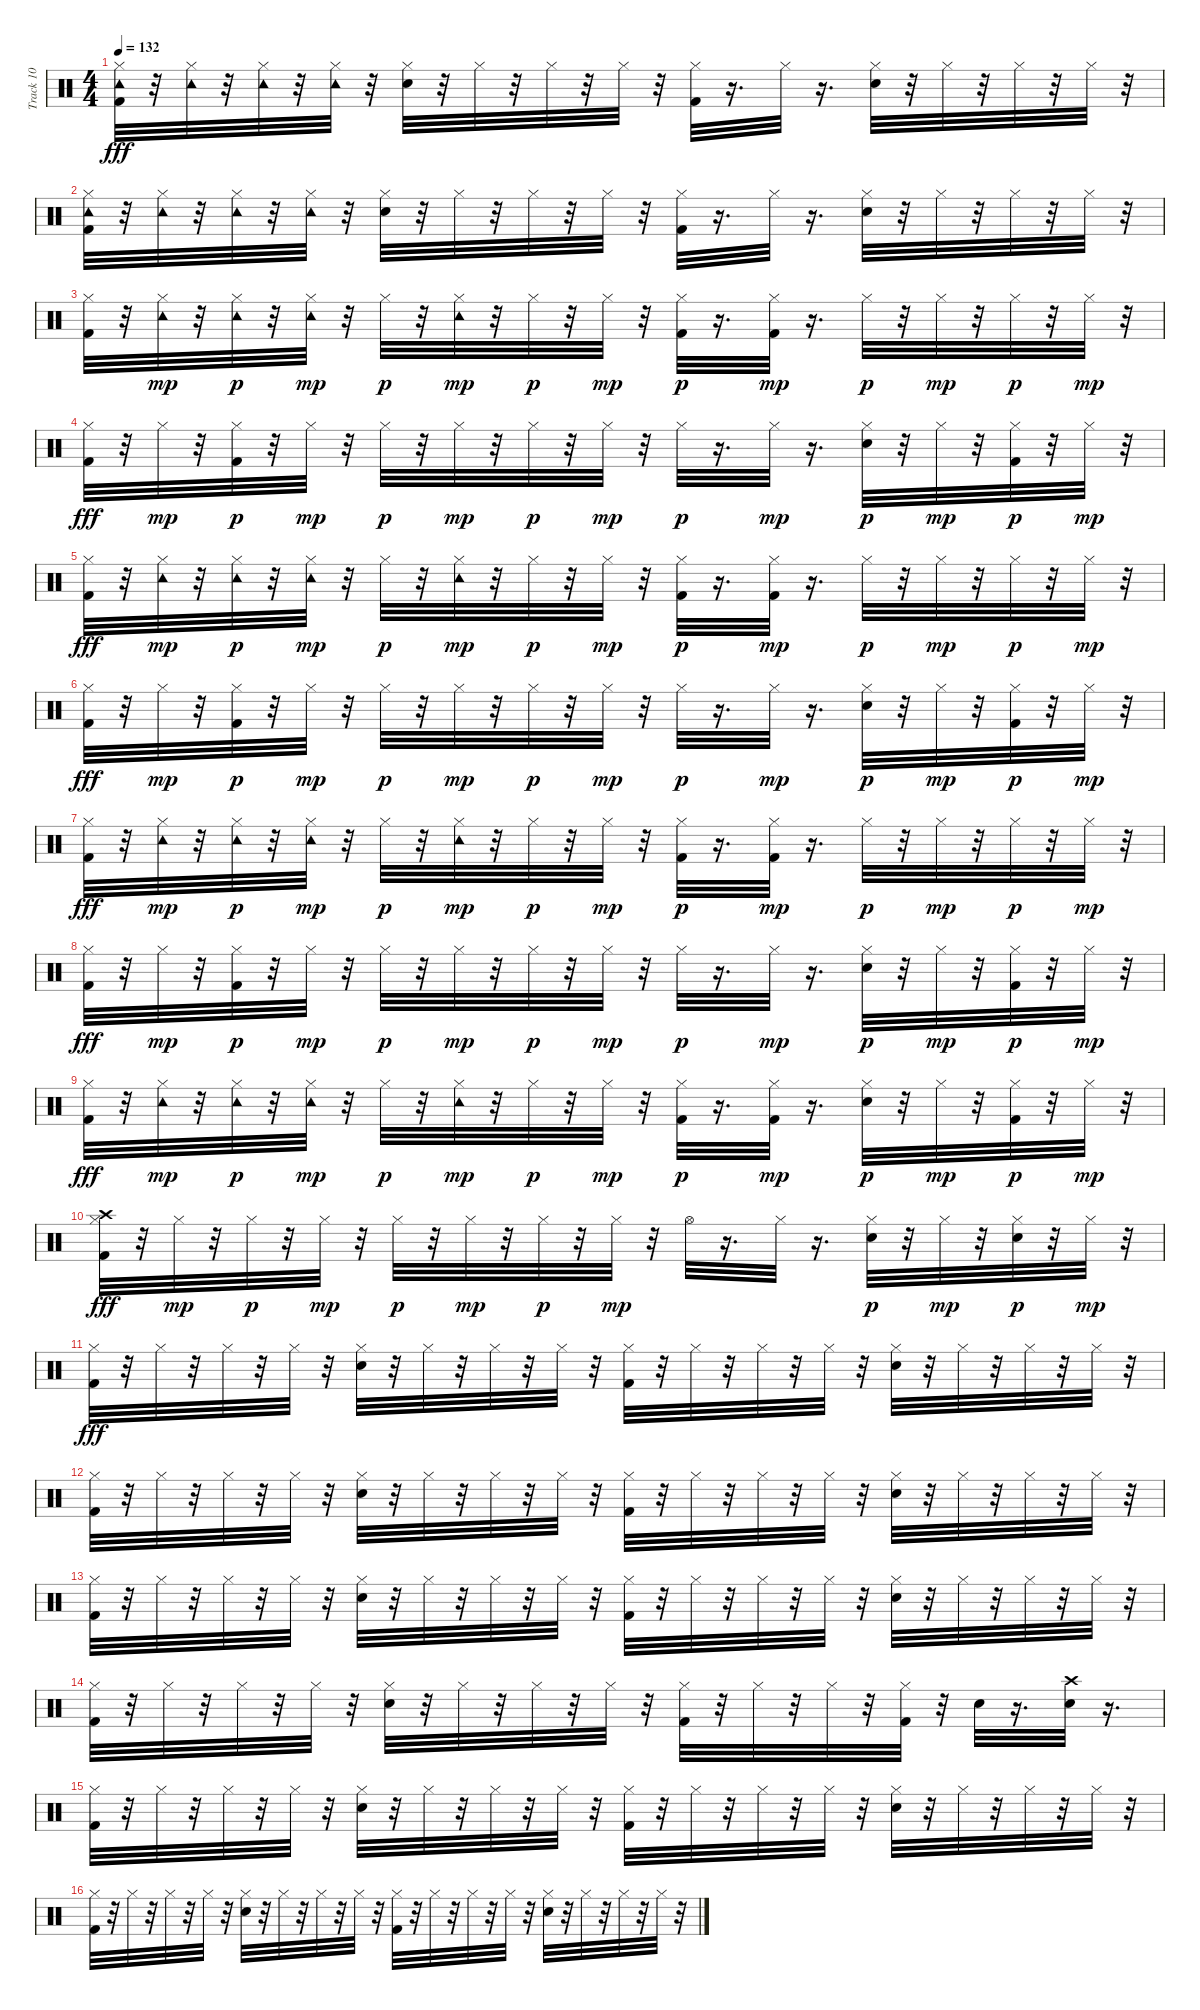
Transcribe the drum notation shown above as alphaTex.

\track ("Track 10" "Track 10") {instrument percussion}
\staff {score}
\articulation defaults
\ts (4 4)
\tempo 132
\clef neutral
\ks c
("Tambourine (hit)" "Kick (hit) 2" "Hi-Hat (closed)").32{dy fff} r.32 ("Tambourine (hit)" "Hi-Hat (closed)").32 r.32 ("Tambourine (hit)" "Hi-Hat (closed)").32 r.32 ("Tambourine (hit)" "Hi-Hat (closed)").32 r.32 ("Snare (hit) 2" "Hi-Hat (closed)").32 r.32 "Hi-Hat (closed)".32 r.32 "Hi-Hat (closed)".32 r.32 "Hi-Hat (closed)".32 r.32 ("Kick (hit) 2" "Hi-Hat (closed)").32 r.16{d} "Hi-Hat (closed)".32 r.16{d} ("Snare (hit) 2" "Hi-Hat (closed)").32 r.32 "Hi-Hat (closed)".32 r.32 "Hi-Hat (closed)".32 r.32 "Hi-Hat (closed)".32 r.32 |
("Tambourine (hit)" "Kick (hit) 2" "Hi-Hat (closed)").32 r.32 ("Tambourine (hit)" "Hi-Hat (closed)").32 r.32 ("Tambourine (hit)" "Hi-Hat (closed)").32 r.32 ("Tambourine (hit)" "Hi-Hat (closed)").32 r.32 ("Snare (hit) 2" "Hi-Hat (closed)").32 r.32 "Hi-Hat (closed)".32 r.32 "Hi-Hat (closed)".32 r.32 "Hi-Hat (closed)".32 r.32 ("Kick (hit) 2" "Hi-Hat (closed)").32 r.16{d} "Hi-Hat (closed)".32 r.16{d} ("Snare (hit) 2" "Hi-Hat (closed)").32 r.32 "Hi-Hat (closed)".32 r.32 "Hi-Hat (closed)".32 r.32 "Hi-Hat (closed)".32 r.32 |
("Hi-Hat (closed)" "Kick (hit) 2").32 r.32 ("Tambourine (hit)" "Hi-Hat (closed)").32{dy mp} r.32 ("Tambourine (hit)" "Hi-Hat (closed)").32{dy p} r.32 ("Tambourine (hit)" "Hi-Hat (closed)").32{dy mp} r.32 "Hi-Hat (closed)".32{dy p} r.32 ("Tambourine (hit)" "Hi-Hat (closed)").32{dy mp} r.32 "Hi-Hat (closed)".32{dy p} r.32 "Hi-Hat (closed)".32{dy mp} r.32 ("Kick (hit) 2" "Hi-Hat (closed)").32{dy p} r.16{d} ("Kick (hit) 2" "Hi-Hat (closed)").32{dy mp} r.16{d} "Hi-Hat (closed)".32{dy p} r.32 "Hi-Hat (closed)".32{dy mp} r.32 "Hi-Hat (closed)".32{dy p} r.32 "Hi-Hat (closed)".32{dy mp} r.32 |
("Hi-Hat (closed)" "Kick (hit) 2").32{dy fff} r.32 "Hi-Hat (closed)".32{dy mp} r.32 ("Kick (hit) 2" "Hi-Hat (closed)").32{dy p} r.32 "Hi-Hat (closed)".32{dy mp} r.32 "Hi-Hat (closed)".32{dy p} r.32 "Hi-Hat (closed)".32{dy mp} r.32 "Hi-Hat (closed)".32{dy p} r.32 "Hi-Hat (closed)".32{dy mp} r.32 "Hi-Hat (closed)".32{dy p} r.16{d} "Hi-Hat (closed)".32{dy mp} r.16{d} ("Snare (hit) 2" "Hi-Hat (closed)").32{dy p} r.32 "Hi-Hat (closed)".32{dy mp} r.32 ("Kick (hit) 2" "Hi-Hat (closed)").32{dy p} r.32 "Hi-Hat (closed)".32{dy mp} r.32 |
("Hi-Hat (closed)" "Kick (hit) 2").32{dy fff} r.32 ("Tambourine (hit)" "Hi-Hat (closed)").32{dy mp} r.32 ("Tambourine (hit)" "Hi-Hat (closed)").32{dy p} r.32 ("Tambourine (hit)" "Hi-Hat (closed)").32{dy mp} r.32 "Hi-Hat (closed)".32{dy p} r.32 ("Tambourine (hit)" "Hi-Hat (closed)").32{dy mp} r.32 "Hi-Hat (closed)".32{dy p} r.32 "Hi-Hat (closed)".32{dy mp} r.32 ("Kick (hit) 2" "Hi-Hat (closed)").32{dy p} r.16{d} ("Kick (hit) 2" "Hi-Hat (closed)").32{dy mp} r.16{d} "Hi-Hat (closed)".32{dy p} r.32 "Hi-Hat (closed)".32{dy mp} r.32 "Hi-Hat (closed)".32{dy p} r.32 "Hi-Hat (closed)".32{dy mp} r.32 |
("Hi-Hat (closed)" "Kick (hit) 2").32{dy fff} r.32 "Hi-Hat (closed)".32{dy mp} r.32 ("Kick (hit) 2" "Hi-Hat (closed)").32{dy p} r.32 "Hi-Hat (closed)".32{dy mp} r.32 "Hi-Hat (closed)".32{dy p} r.32 "Hi-Hat (closed)".32{dy mp} r.32 "Hi-Hat (closed)".32{dy p} r.32 "Hi-Hat (closed)".32{dy mp} r.32 "Hi-Hat (closed)".32{dy p} r.16{d} "Hi-Hat (closed)".32{dy mp} r.16{d} ("Snare (hit) 2" "Hi-Hat (closed)").32{dy p} r.32 "Hi-Hat (closed)".32{dy mp} r.32 ("Kick (hit) 2" "Hi-Hat (closed)").32{dy p} r.32 "Hi-Hat (closed)".32{dy mp} r.32 |
("Hi-Hat (closed)" "Kick (hit) 2").32{dy fff} r.32 ("Tambourine (hit)" "Hi-Hat (closed)").32{dy mp} r.32 ("Tambourine (hit)" "Hi-Hat (closed)").32{dy p} r.32 ("Tambourine (hit)" "Hi-Hat (closed)").32{dy mp} r.32 "Hi-Hat (closed)".32{dy p} r.32 ("Tambourine (hit)" "Hi-Hat (closed)").32{dy mp} r.32 "Hi-Hat (closed)".32{dy p} r.32 "Hi-Hat (closed)".32{dy mp} r.32 ("Kick (hit) 2" "Hi-Hat (closed)").32{dy p} r.16{d} ("Kick (hit) 2" "Hi-Hat (closed)").32{dy mp} r.16{d} "Hi-Hat (closed)".32{dy p} r.32 "Hi-Hat (closed)".32{dy mp} r.32 "Hi-Hat (closed)".32{dy p} r.32 "Hi-Hat (closed)".32{dy mp} r.32 |
("Hi-Hat (closed)" "Kick (hit) 2").32{dy fff} r.32 "Hi-Hat (closed)".32{dy mp} r.32 ("Kick (hit) 2" "Hi-Hat (closed)").32{dy p} r.32 "Hi-Hat (closed)".32{dy mp} r.32 "Hi-Hat (closed)".32{dy p} r.32 "Hi-Hat (closed)".32{dy mp} r.32 "Hi-Hat (closed)".32{dy p} r.32 "Hi-Hat (closed)".32{dy mp} r.32 "Hi-Hat (closed)".32{dy p} r.16{d} "Hi-Hat (closed)".32{dy mp} r.16{d} ("Snare (hit) 2" "Hi-Hat (closed)").32{dy p} r.32 "Hi-Hat (closed)".32{dy mp} r.32 ("Kick (hit) 2" "Hi-Hat (closed)").32{dy p} r.32 "Hi-Hat (closed)".32{dy mp} r.32 |
("Hi-Hat (closed)" "Kick (hit) 2").32{dy fff} r.32 ("Tambourine (hit)" "Hi-Hat (closed)").32{dy mp} r.32 ("Tambourine (hit)" "Hi-Hat (closed)").32{dy p} r.32 ("Tambourine (hit)" "Hi-Hat (closed)").32{dy mp} r.32 "Hi-Hat (closed)".32{dy p} r.32 ("Tambourine (hit)" "Hi-Hat (closed)").32{dy mp} r.32 "Hi-Hat (closed)".32{dy p} r.32 "Hi-Hat (closed)".32{dy mp} r.32 ("Kick (hit) 2" "Hi-Hat (closed)").32{dy p} r.16{d} ("Kick (hit) 2" "Hi-Hat (closed)").32{dy mp} r.16{d} ("Snare (hit) 2" "Hi-Hat (closed)").32{dy p} r.32 "Hi-Hat (closed)".32{dy mp} r.32 ("Kick (hit) 2" "Hi-Hat (closed)").32{dy p} r.32 "Hi-Hat (closed)".32{dy mp} r.32 |
("Crash high (hit)" "Hi-Hat (closed)" "Kick (hit) 2").32{dy fff} r.32 "Hi-Hat (closed)".32{dy mp} r.32 "Hi-Hat (closed)".32{dy p} r.32 "Hi-Hat (closed)".32{dy mp} r.32 "Hi-Hat (closed)".32{dy p} r.32 "Hi-Hat (closed)".32{dy mp} r.32 "Hi-Hat (closed)".32{dy p} r.32 "Hi-Hat (closed)".32{dy mp} r.32 "Hi-Hat (open)".32 r.16{d} "Hi-Hat (closed)".32 r.16{d} ("Snare (hit) 2" "Hi-Hat (closed)").32{dy p} r.32 "Hi-Hat (closed)".32{dy mp} r.32 ("Snare (hit) 2" "Hi-Hat (closed)").32{dy p} r.32 "Hi-Hat (closed)".32{dy mp} r.32 |
("Kick (hit) 2" "Hi-Hat (closed)").32{dy fff} r.32 "Hi-Hat (closed)".32 r.32 "Hi-Hat (closed)".32 r.32 "Hi-Hat (closed)".32 r.32 ("Snare (hit) 2" "Hi-Hat (closed)").32 r.32 "Hi-Hat (closed)".32 r.32 "Hi-Hat (closed)".32 r.32 "Hi-Hat (closed)".32 r.32 ("Kick (hit) 2" "Hi-Hat (closed)").32 r.32 "Hi-Hat (closed)".32 r.32 "Hi-Hat (closed)".32 r.32 "Hi-Hat (closed)".32 r.32 ("Snare (hit) 2" "Hi-Hat (closed)").32 r.32 "Hi-Hat (closed)".32 r.32 "Hi-Hat (closed)".32 r.32 "Hi-Hat (closed)".32 r.32 |
("Kick (hit) 2" "Hi-Hat (closed)").32 r.32 "Hi-Hat (closed)".32 r.32 "Hi-Hat (closed)".32 r.32 "Hi-Hat (closed)".32 r.32 ("Snare (hit) 2" "Hi-Hat (closed)").32 r.32 "Hi-Hat (closed)".32 r.32 "Hi-Hat (closed)".32 r.32 "Hi-Hat (closed)".32 r.32 ("Kick (hit) 2" "Hi-Hat (closed)").32 r.32 "Hi-Hat (closed)".32 r.32 "Hi-Hat (closed)".32 r.32 "Hi-Hat (closed)".32 r.32 ("Snare (hit) 2" "Hi-Hat (closed)").32 r.32 "Hi-Hat (closed)".32 r.32 "Hi-Hat (closed)".32 r.32 "Hi-Hat (closed)".32 r.32 |
("Kick (hit) 2" "Hi-Hat (closed)").32 r.32 "Hi-Hat (closed)".32 r.32 "Hi-Hat (closed)".32 r.32 "Hi-Hat (closed)".32 r.32 ("Snare (hit) 2" "Hi-Hat (closed)").32 r.32 "Hi-Hat (closed)".32 r.32 "Hi-Hat (closed)".32 r.32 "Hi-Hat (closed)".32 r.32 ("Kick (hit) 2" "Hi-Hat (closed)").32 r.32 "Hi-Hat (closed)".32 r.32 "Hi-Hat (closed)".32 r.32 "Hi-Hat (closed)".32 r.32 ("Snare (hit) 2" "Hi-Hat (closed)").32 r.32 "Hi-Hat (closed)".32 r.32 "Hi-Hat (closed)".32 r.32 "Hi-Hat (closed)".32 r.32 |
("Kick (hit) 2" "Hi-Hat (closed)").32 r.32 "Hi-Hat (closed)".32 r.32 "Hi-Hat (closed)".32 r.32 "Hi-Hat (closed)".32 r.32 ("Snare (hit) 2" "Hi-Hat (closed)").32 r.32 "Hi-Hat (closed)".32 r.32 "Hi-Hat (closed)".32 r.32 "Hi-Hat (closed)".32 r.32 ("Kick (hit) 2" "Hi-Hat (closed)").32 r.32 "Hi-Hat (closed)".32 r.32 "Hi-Hat (closed)".32 r.32 ("Kick (hit) 2" "Hi-Hat (closed)").32 r.32 "Snare (hit) 2".32 r.16{d} ("Crash high (hit)" "Snare (hit) 2").32 r.16{d} |
("Kick (hit) 2" "Hi-Hat (closed)").32 r.32 "Hi-Hat (closed)".32 r.32 "Hi-Hat (closed)".32 r.32 "Hi-Hat (closed)".32 r.32 ("Snare (hit) 2" "Hi-Hat (closed)").32 r.32 "Hi-Hat (closed)".32 r.32 "Hi-Hat (closed)".32 r.32 "Hi-Hat (closed)".32 r.32 ("Kick (hit) 2" "Hi-Hat (closed)").32 r.32 "Hi-Hat (closed)".32 r.32 "Hi-Hat (closed)".32 r.32 "Hi-Hat (closed)".32 r.32 ("Snare (hit) 2" "Hi-Hat (closed)").32 r.32 "Hi-Hat (closed)".32 r.32 "Hi-Hat (closed)".32 r.32 "Hi-Hat (closed)".32 r.32 |
("Kick (hit) 2" "Hi-Hat (closed)").32 r.32 "Hi-Hat (closed)".32 r.32 "Hi-Hat (closed)".32 r.32 "Hi-Hat (closed)".32 r.32 ("Snare (hit) 2" "Hi-Hat (closed)").32 r.32 "Hi-Hat (closed)".32 r.32 "Hi-Hat (closed)".32 r.32 "Hi-Hat (closed)".32 r.32 ("Kick (hit) 2" "Hi-Hat (closed)").32 r.32 "Hi-Hat (closed)".32 r.32 "Hi-Hat (closed)".32 r.32 "Hi-Hat (closed)".32 r.32 ("Snare (hit) 2" "Hi-Hat (closed)").32 r.32 "Hi-Hat (closed)".32 r.32 "Hi-Hat (closed)".32 r.32 "Hi-Hat (closed)".32 r.32
